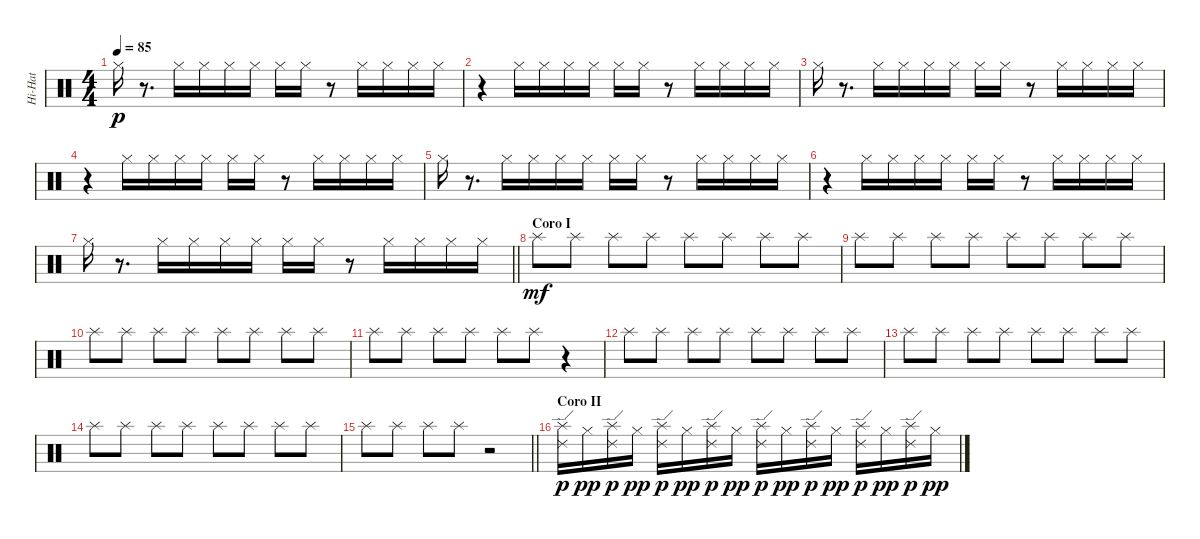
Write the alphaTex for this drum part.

\track ("Hi-Hat" "Hi-Hat") {instrument percussion}
\staff {score}
\articulation defaults
\ts (4 4)
\tempo 85
\clef neutral
\ks c "Hi-Hat (closed)".16{dy p}
r.8{d} "Hi-Hat (closed)".16 "Hi-Hat (closed)".16 "Hi-Hat (closed)".16 "Hi-Hat (closed)".16 "Hi-Hat (closed)".16 "Hi-Hat (closed)".16 r.8 "Hi-Hat (closed)".16 "Hi-Hat (closed)".16 "Hi-Hat (closed)".16 "Hi-Hat (closed)".16 |
r.4 "Hi-Hat (closed)".16 "Hi-Hat (closed)".16 "Hi-Hat (closed)".16 "Hi-Hat (closed)".16 "Hi-Hat (closed)".16 "Hi-Hat (closed)".16 r.8 "Hi-Hat (closed)".16 "Hi-Hat (closed)".16 "Hi-Hat (closed)".16 "Hi-Hat (closed)".16 |
"Hi-Hat (closed)".16 r.8{d} "Hi-Hat (closed)".16 "Hi-Hat (closed)".16 "Hi-Hat (closed)".16 "Hi-Hat (closed)".16 "Hi-Hat (closed)".16 "Hi-Hat (closed)".16 r.8 "Hi-Hat (closed)".16 "Hi-Hat (closed)".16 "Hi-Hat (closed)".16 "Hi-Hat (closed)".16 |
r.4 "Hi-Hat (closed)".16 "Hi-Hat (closed)".16 "Hi-Hat (closed)".16 "Hi-Hat (closed)".16 "Hi-Hat (closed)".16 "Hi-Hat (closed)".16 r.8 "Hi-Hat (closed)".16 "Hi-Hat (closed)".16 "Hi-Hat (closed)".16 "Hi-Hat (closed)".16 |
"Hi-Hat (closed)".16 r.8{d} "Hi-Hat (closed)".16 "Hi-Hat (closed)".16 "Hi-Hat (closed)".16 "Hi-Hat (closed)".16 "Hi-Hat (closed)".16 "Hi-Hat (closed)".16 r.8 "Hi-Hat (closed)".16 "Hi-Hat (closed)".16 "Hi-Hat (closed)".16 "Hi-Hat (closed)".16 |
r.4 "Hi-Hat (closed)".16 "Hi-Hat (closed)".16 "Hi-Hat (closed)".16 "Hi-Hat (closed)".16 "Hi-Hat (closed)".16 "Hi-Hat (closed)".16 r.8 "Hi-Hat (closed)".16 "Hi-Hat (closed)".16 "Hi-Hat (closed)".16 "Hi-Hat (closed)".16 |
\barLineRight lightlight "Hi-Hat (closed)".16
r.8{d} "Hi-Hat (closed)".16 "Hi-Hat (closed)".16 "Hi-Hat (closed)".16 "Hi-Hat (closed)".16 "Hi-Hat (closed)".16 "Hi-Hat (closed)".16 r.8 "Hi-Hat (closed)".16 "Hi-Hat (closed)".16 "Hi-Hat (closed)".16 "Hi-Hat (closed)".16 |
\section ("" "Coro I")
"Splash (hit)".8{dy mf} "Splash (hit)".8 "Splash (hit)".8 "Splash (hit)".8 "Splash (hit)".8 "Splash (hit)".8 "Splash (hit)".8 "Splash (hit)".8 |
"Splash (hit)".8 "Splash (hit)".8 "Splash (hit)".8 "Splash (hit)".8 "Splash (hit)".8 "Splash (hit)".8 "Splash (hit)".8 "Splash (hit)".8 |
"Splash (hit)".8 "Splash (hit)".8 "Splash (hit)".8 "Splash (hit)".8 "Splash (hit)".8 "Splash (hit)".8 "Splash (hit)".8 "Splash (hit)".8 |
"Splash (hit)".8 "Splash (hit)".8 "Splash (hit)".8 "Splash (hit)".8 "Splash (hit)".8 "Splash (hit)".8 r.4 |
"Splash (hit)".8 "Splash (hit)".8 "Splash (hit)".8 "Splash (hit)".8 "Splash (hit)".8 "Splash (hit)".8 "Splash (hit)".8 "Splash (hit)".8 |
"Splash (hit)".8 "Splash (hit)".8 "Splash (hit)".8 "Splash (hit)".8 "Splash (hit)".8 "Splash (hit)".8 "Splash (hit)".8 "Splash (hit)".8 |
"Splash (hit)".8 "Splash (hit)".8 "Splash (hit)".8 "Splash (hit)".8 "Splash (hit)".8 "Splash (hit)".8 "Splash (hit)".8 "Splash (hit)".8 |
\barLineRight lightlight "Splash (hit)".8 "Splash (hit)".8 "Splash (hit)".8 "Splash (hit)".8
r.2 |
\section ("" "Coro II")
("Ride (edge) 2" "Splash (hit)").16{dy p} "Hi-Hat (closed)".16{dy pp} ("Ride (edge) 2" "Splash (hit)").16{dy p} "Hi-Hat (closed)".16{dy pp} ("Ride (edge) 2" "Splash (hit)").16{dy p} "Hi-Hat (closed)".16{dy pp} ("Ride (edge) 2" "Splash (hit)").16{dy p} "Hi-Hat (closed)".16{dy pp} ("Ride (edge) 2" "Splash (hit)").16{dy p} "Hi-Hat (closed)".16{dy pp} ("Ride (edge) 2" "Splash (hit)").16{dy p} "Hi-Hat (closed)".16{dy pp} ("Ride (edge) 2" "Splash (hit)").16{dy p} "Hi-Hat (closed)".16{dy pp} ("Ride (edge) 2" "Splash (hit)").16{dy p} "Hi-Hat (closed)".16{dy pp}
